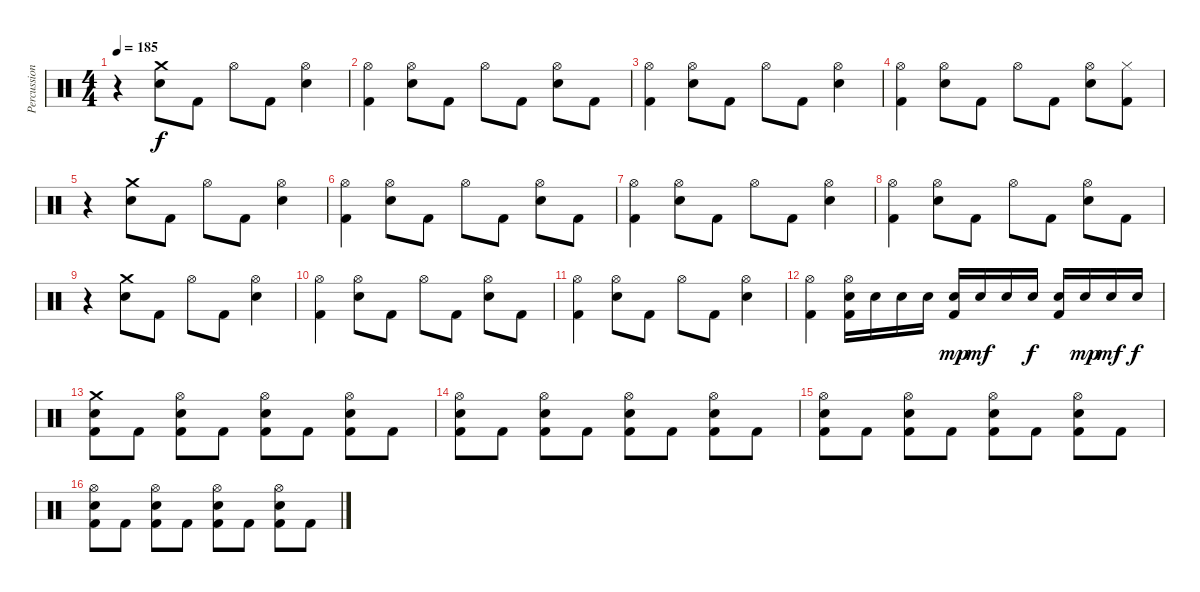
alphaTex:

\track ("Percussions" "Percussion") {instrument percussion}
\staff {score}
\articulation defaults
\ts (4 4)
\tempo 185
\clef neutral
\ks c
r.4{dy f} ("Crash medium (hit)" "Electric Snare (hit)").8 "Kick (hit) 2".8 "Hi-Hat (open)".8 "Kick (hit) 2".8 ("Hi-Hat (open)" "Electric Snare (hit)").4 |
("Hi-Hat (open)" "Kick (hit) 2").4 ("Hi-Hat (open)" "Electric Snare (hit)").8 "Kick (hit) 2".8 "Hi-Hat (open)".8 "Kick (hit) 2".8 ("Hi-Hat (open)" "Electric Snare (hit)").8 "Kick (hit) 2".8 |
("Hi-Hat (open)" "Kick (hit) 2").4 ("Hi-Hat (open)" "Electric Snare (hit)").8 "Kick (hit) 2".8 "Hi-Hat (open)".8 "Kick (hit) 2".8 ("Hi-Hat (open)" "Electric Snare (hit)").4 |
("Hi-Hat (open)" "Kick (hit) 2").4 ("Hi-Hat (open)" "Electric Snare (hit)").8 "Kick (hit) 2".8 "Hi-Hat (open)".8 "Kick (hit) 2".8 ("Hi-Hat (open)" "Electric Snare (hit)").8 ("Hi-Hat (closed)" "Kick (hit) 2").8 |
r.4 ("Crash medium (hit)" "Electric Snare (hit)").8 "Kick (hit) 2".8 "Hi-Hat (open)".8 "Kick (hit) 2".8 ("Hi-Hat (open)" "Electric Snare (hit)").4 |
("Hi-Hat (open)" "Kick (hit) 2").4 ("Hi-Hat (open)" "Electric Snare (hit)").8 "Kick (hit) 2".8 "Hi-Hat (open)".8 "Kick (hit) 2".8 ("Hi-Hat (open)" "Electric Snare (hit)").8 "Kick (hit) 2".8 |
("Hi-Hat (open)" "Kick (hit) 2").4 ("Hi-Hat (open)" "Electric Snare (hit)").8 "Kick (hit) 2".8 "Hi-Hat (open)".8 "Kick (hit) 2".8 ("Hi-Hat (open)" "Electric Snare (hit)").4 |
("Hi-Hat (open)" "Kick (hit) 2").4 ("Hi-Hat (open)" "Electric Snare (hit)").8 "Kick (hit) 2".8 "Hi-Hat (open)".8 "Kick (hit) 2".8 ("Hi-Hat (open)" "Electric Snare (hit)").8 "Kick (hit) 2".8 |
r.4 ("Crash medium (hit)" "Electric Snare (hit)").8 "Kick (hit) 2".8 "Hi-Hat (open)".8 "Kick (hit) 2".8 ("Hi-Hat (open)" "Electric Snare (hit)").4 |
("Hi-Hat (open)" "Kick (hit) 2").4 ("Hi-Hat (open)" "Electric Snare (hit)").8 "Kick (hit) 2".8 "Hi-Hat (open)".8 "Kick (hit) 2".8 ("Hi-Hat (open)" "Electric Snare (hit)").8 "Kick (hit) 2".8 |
("Hi-Hat (open)" "Kick (hit) 2").4 ("Hi-Hat (open)" "Electric Snare (hit)").8 "Kick (hit) 2".8 "Hi-Hat (open)".8 "Kick (hit) 2".8 ("Hi-Hat (open)" "Electric Snare (hit)").4 |
("Hi-Hat (open)" "Kick (hit) 2").4 ("Hi-Hat (open)" "Electric Snare (hit)" "Kick (hit) 2").16 "Electric Snare (hit)".16 "Electric Snare (hit)".16 "Electric Snare (hit)".16 ("Electric Snare (hit)" "Kick (hit) 2").16{dy mp} "Electric Snare (hit)".16{dy mf} "Electric Snare (hit)".16 "Electric Snare (hit)".16{dy f} ("Electric Snare (hit)" "Kick (hit) 2").16 "Electric Snare (hit)".16{dy mp} "Electric Snare (hit)".16{dy mf} "Electric Snare (hit)".16{dy f} |
("Crash medium (hit)" "Electric Snare (hit)" "Kick (hit) 2").8 "Kick (hit) 2".8 ("Hi-Hat (open)" "Electric Snare (hit)" "Kick (hit) 2").8 "Kick (hit) 2".8 ("Hi-Hat (open)" "Electric Snare (hit)" "Kick (hit) 2").8 "Kick (hit) 2".8 ("Hi-Hat (open)" "Electric Snare (hit)" "Kick (hit) 2").8 "Kick (hit) 2".8 |
("Hi-Hat (open)" "Electric Snare (hit)" "Kick (hit) 2").8 "Kick (hit) 2".8 ("Hi-Hat (open)" "Electric Snare (hit)" "Kick (hit) 2").8 "Kick (hit) 2".8 ("Hi-Hat (open)" "Electric Snare (hit)" "Kick (hit) 2").8 "Kick (hit) 2".8 ("Hi-Hat (open)" "Electric Snare (hit)" "Kick (hit) 2").8 "Kick (hit) 2".8 |
("Hi-Hat (open)" "Electric Snare (hit)" "Kick (hit) 2").8 "Kick (hit) 2".8 ("Hi-Hat (open)" "Electric Snare (hit)" "Kick (hit) 2").8 "Kick (hit) 2".8 ("Hi-Hat (open)" "Electric Snare (hit)" "Kick (hit) 2").8 "Kick (hit) 2".8 ("Hi-Hat (open)" "Electric Snare (hit)" "Kick (hit) 2").8 "Kick (hit) 2".8 |
("Hi-Hat (open)" "Electric Snare (hit)" "Kick (hit) 2").8 "Kick (hit) 2".8 ("Hi-Hat (open)" "Electric Snare (hit)" "Kick (hit) 2").8 "Kick (hit) 2".8 ("Hi-Hat (open)" "Electric Snare (hit)" "Kick (hit) 2").8 "Kick (hit) 2".8 ("Hi-Hat (open)" "Electric Snare (hit)" "Kick (hit) 2").8 "Kick (hit) 2".8
